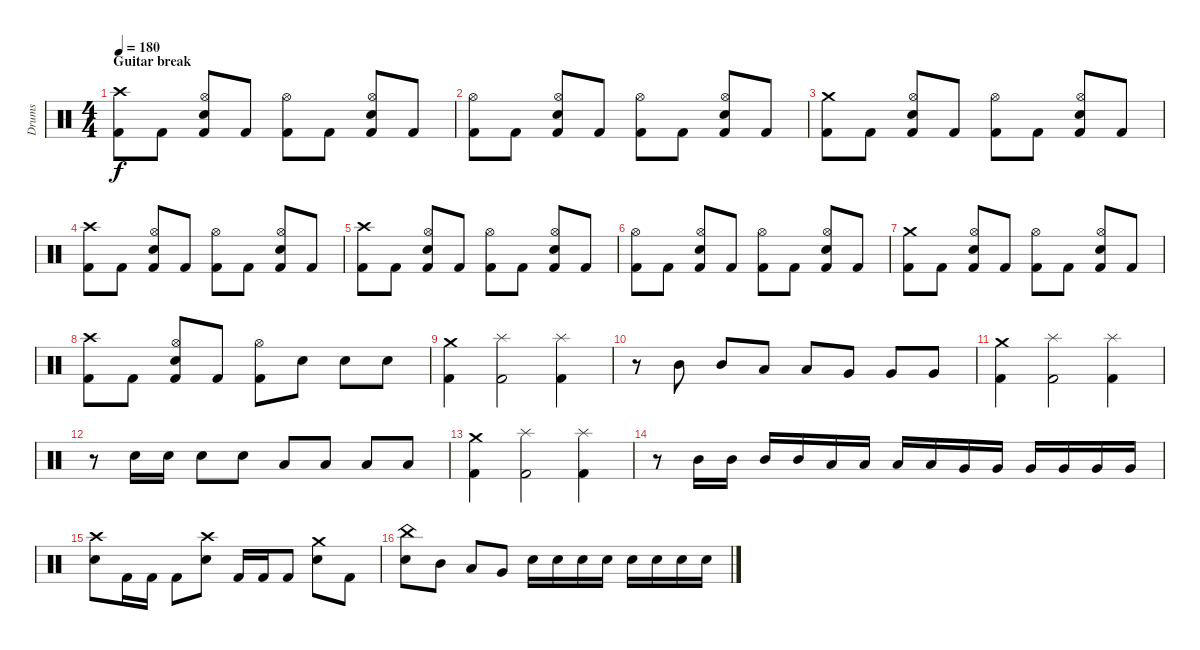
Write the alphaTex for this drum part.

\track ("Drums" "Drums") {instrument percussion}
\staff {score}
\articulation defaults
\ts (4 4)
\section ("" "Guitar break")
\tempo 180
\clef neutral
\ks c
("Crash high (hit)" "Kick (hit) 2").8{dy f} "Kick (hit) 2".8 ("Hi-Hat (open)" "Electric Snare (hit)" "Kick (hit) 2").8 "Kick (hit) 2".8 ("Hi-Hat (open)" "Kick (hit) 2").8 "Kick (hit) 2".8 ("Hi-Hat (open)" "Electric Snare (hit)" "Kick (hit) 2").8 "Kick (hit) 2".8 |
("Hi-Hat (open)" "Kick (hit) 2").8 "Kick (hit) 2".8 ("Hi-Hat (open)" "Electric Snare (hit)" "Kick (hit) 2").8 "Kick (hit) 2".8 ("Hi-Hat (open)" "Kick (hit) 2").8 "Kick (hit) 2".8 ("Hi-Hat (open)" "Electric Snare (hit)" "Kick (hit) 2").8 "Kick (hit) 2".8 |
("Crash medium (hit)" "Kick (hit) 2").8 "Kick (hit) 2".8 ("Hi-Hat (open)" "Electric Snare (hit)" "Kick (hit) 2").8 "Kick (hit) 2".8 ("Hi-Hat (open)" "Kick (hit) 2").8 "Kick (hit) 2".8 ("Hi-Hat (open)" "Electric Snare (hit)" "Kick (hit) 2").8 "Kick (hit) 2".8 |
("Crash high (hit)" "Kick (hit) 2").8 "Kick (hit) 2".8 ("Hi-Hat (open)" "Electric Snare (hit)" "Kick (hit) 2").8 "Kick (hit) 2".8 ("Hi-Hat (open)" "Kick (hit) 2").8 "Kick (hit) 2".8 ("Hi-Hat (open)" "Electric Snare (hit)" "Kick (hit) 2").8 "Kick (hit) 2".8 |
("Crash high (hit)" "Kick (hit) 2").8 "Kick (hit) 2".8 ("Hi-Hat (open)" "Electric Snare (hit)" "Kick (hit) 2").8 "Kick (hit) 2".8 ("Hi-Hat (open)" "Kick (hit) 2").8 "Kick (hit) 2".8 ("Hi-Hat (open)" "Electric Snare (hit)" "Kick (hit) 2").8 "Kick (hit) 2".8 |
("Hi-Hat (open)" "Kick (hit) 2").8 "Kick (hit) 2".8 ("Hi-Hat (open)" "Electric Snare (hit)" "Kick (hit) 2").8 "Kick (hit) 2".8 ("Hi-Hat (open)" "Kick (hit) 2").8 "Kick (hit) 2".8 ("Hi-Hat (open)" "Electric Snare (hit)" "Kick (hit) 2").8 "Kick (hit) 2".8 |
("Crash medium (hit)" "Kick (hit) 2").8 "Kick (hit) 2".8 ("Hi-Hat (open)" "Electric Snare (hit)" "Kick (hit) 2").8 "Kick (hit) 2".8 ("Hi-Hat (open)" "Kick (hit) 2").8 "Kick (hit) 2".8 ("Hi-Hat (open)" "Electric Snare (hit)" "Kick (hit) 2").8 "Kick (hit) 2".8 |
("Crash high (hit)" "Kick (hit) 2").8 "Kick (hit) 2".8 ("Hi-Hat (open)" "Electric Snare (hit)" "Kick (hit) 2").8 "Kick (hit) 2".8 ("Hi-Hat (open)" "Kick (hit) 2").8 "Electric Snare (hit)".8 "Electric Snare (hit)".8 "Electric Snare (hit)".8 |
("Crash medium (hit)" "Kick (hit) 2").4 ("Splash (hit)" "Kick (hit) 2").2 ("Splash (hit)" "Kick (hit) 2").4 |
r.8 "Mid Tom (hit)".8 "Mid Tom (hit)".8 "Low Tom (hit)".8 "Low Tom (hit)".8 "Very Low Tom (hit)".8 "Very Low Tom (hit)".8 "Very Low Tom (hit)".8 |
("Crash medium (hit)" "Kick (hit) 2").4 ("Splash (hit)" "Kick (hit) 2").2 ("Splash (hit)" "Kick (hit) 2").4 |
r.8 "Snare (hit) 2".16 "Snare (hit) 2".16 "Electric Snare (hit)".8 "Electric Snare (hit)".8 "Low Tom (hit)".8 "Low Tom (hit)".8 "Low Floor Tom (hit)".8 "Low Floor Tom (hit)".8 |
("Crash medium (hit)" "Kick (hit) 2").4 ("Splash (hit)" "Kick (hit) 2").2 ("Splash (hit)" "Kick (hit) 2").4 |
r.8 "Mid Tom (hit)".16 "Mid Tom (hit)".16 "Mid Tom (hit)".16 "Mid Tom (hit)".16 "Low Tom (hit)".16 "Low Tom (hit)".16 "Low Tom (hit)".16 "Low Tom (hit)".16 "Very Low Tom (hit)".16 "Very Low Tom (hit)".16 "Very Low Tom (hit)".16 "Very Low Tom (hit)".16 "Very Low Tom (hit)".16 "Very Low Tom (hit)".16 |
("Crash high (hit)" "Electric Snare (hit)").8 "Kick (hit) 2".16 "Kick (hit) 2".16 "Kick (hit) 2".8 ("Crash high (hit)" "Electric Snare (hit)").8 "Kick (hit) 2".16 "Kick (hit) 2".16 "Kick (hit) 2".8 ("Crash medium (hit)" "Electric Snare (hit)").8 "Kick (hit) 2".8 |
("China (hit)" "Electric Snare (hit)").8 "Mid Tom (hit)".8 "Low Tom (hit)".8 "Very Low Tom (hit)".8 "Snare (hit) 2".16 "Snare (hit) 2".16 "Snare (hit) 2".16 "Snare (hit) 2".16 "Snare (hit) 2".16 "Snare (hit) 2".16 "Snare (hit) 2".16 "Electric Snare (hit)".16
